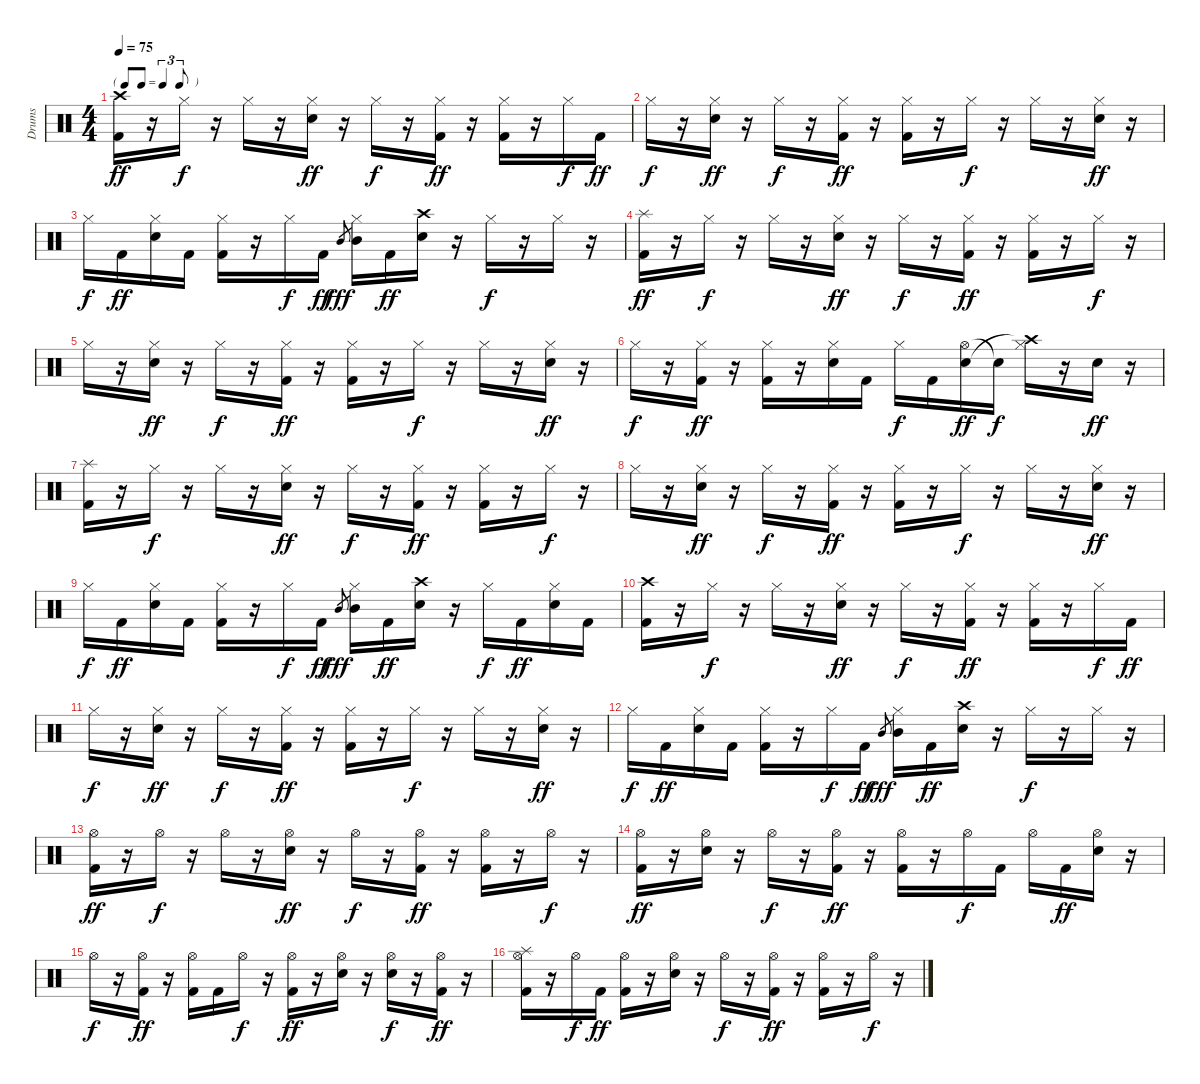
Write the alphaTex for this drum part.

\track ("Drums" "Drums") {instrument percussion}
\staff {score}
\articulation defaults
\ts (4 4)
\tf triplet8th
\tempo 75
\clef neutral
\ks c
("Crash high (hit)" "Kick (hit) 2").16{dy ff} r.16 "Hi-Hat (closed)".16{dy f} r.16 "Hi-Hat (closed)".16 r.16 ("Hi-Hat (closed)" "Electric Snare (hit)").16{dy ff} r.16 "Hi-Hat (closed)".16{dy f} r.16 ("Hi-Hat (closed)" "Kick (hit) 2").16{dy ff} r.16 ("Hi-Hat (closed)" "Kick (hit) 2").16 r.16 "Hi-Hat (closed)".16{dy f} "Kick (hit) 2".16{dy ff} |
"Hi-Hat (closed)".16{dy f} r.16 ("Hi-Hat (closed)" "Electric Snare (hit)").16{dy ff} r.16 "Hi-Hat (closed)".16{dy f} r.16 ("Hi-Hat (closed)" "Kick (hit) 2").16{dy ff} r.16 ("Hi-Hat (closed)" "Kick (hit) 2").16 r.16 "Hi-Hat (closed)".16{dy f} r.16 "Hi-Hat (closed)".16 r.16 ("Hi-Hat (closed)" "Electric Snare (hit)").16{dy ff} r.16 |
"Hi-Hat (closed)".16{dy f} "Kick (hit) 2".16{dy ff} ("Hi-Hat (closed)" "Electric Snare (hit)").16 "Kick (hit) 2".16 ("Hi-Hat (closed)" "Kick (hit) 2").16 r.16 "Hi-Hat (closed)".16{dy f} "Kick (hit) 2".16{dy ff} "Mid Tom (hit)".8{gr dy fff} ("Hi-Hat (closed)" "Mid Tom (hit)").16 "Kick (hit) 2".16{dy ff} ("Crash high (hit)" "Electric Snare (hit)").16 r.16 "Hi-Hat (closed)".16{dy f} r.16 "Hi-Hat (closed)".16 r.16 |
("Splash (hit)" "Kick (hit) 2").16{dy ff} r.16 "Hi-Hat (closed)".16{dy f} r.16 "Hi-Hat (closed)".16 r.16 ("Hi-Hat (closed)" "Electric Snare (hit)").16{dy ff} r.16 "Hi-Hat (closed)".16{dy f} r.16 ("Hi-Hat (closed)" "Kick (hit) 2").16{dy ff} r.16 ("Hi-Hat (closed)" "Kick (hit) 2").16 r.16 "Hi-Hat (closed)".16{dy f} r.16 |
"Hi-Hat (closed)".16 r.16 ("Hi-Hat (closed)" "Electric Snare (hit)").16{dy ff} r.16 "Hi-Hat (closed)".16{dy f} r.16 ("Hi-Hat (closed)" "Kick (hit) 2").16{dy ff} r.16 ("Hi-Hat (closed)" "Kick (hit) 2").16 r.16 "Hi-Hat (closed)".16{dy f} r.16 "Hi-Hat (closed)".16 r.16 ("Hi-Hat (closed)" "Electric Snare (hit)").16{dy ff} r.16 |
"Hi-Hat (closed)".16{dy f} r.16 ("Hi-Hat (closed)" "Kick (hit) 2").16{dy ff} r.16 ("Hi-Hat (closed)" "Kick (hit) 2").16 r.16 ("Hi-Hat (closed)" "Electric Snare (hit)").16 "Kick (hit) 2".16 "Hi-Hat (closed)".16{dy f} "Kick (hit) 2".16 ("Hi-Hat (open)" "Electric Snare (hit)").16{dy ff} "Snare (hit)"{t}.16{dy f} ("Hi-Hat (closed)" "Crash high (hit)"{t}).16 r.16 "Electric Snare (hit)".16{dy ff} r.16 |
("Splash (hit)" "Kick (hit) 2").16 r.16 "Hi-Hat (closed)".16{dy f} r.16 "Hi-Hat (closed)".16 r.16 ("Hi-Hat (closed)" "Electric Snare (hit)").16{dy ff} r.16 "Hi-Hat (closed)".16{dy f} r.16 ("Hi-Hat (closed)" "Kick (hit) 2").16{dy ff} r.16 ("Hi-Hat (closed)" "Kick (hit) 2").16 r.16 "Hi-Hat (closed)".16{dy f} r.16 |
"Hi-Hat (closed)".16 r.16 ("Hi-Hat (closed)" "Electric Snare (hit)").16{dy ff} r.16 "Hi-Hat (closed)".16{dy f} r.16 ("Hi-Hat (closed)" "Kick (hit) 2").16{dy ff} r.16 ("Hi-Hat (closed)" "Kick (hit) 2").16 r.16 "Hi-Hat (closed)".16{dy f} r.16 "Hi-Hat (closed)".16 r.16 ("Hi-Hat (closed)" "Electric Snare (hit)").16{dy ff} r.16 |
"Hi-Hat (closed)".16{dy f} "Kick (hit) 2".16{dy ff} ("Hi-Hat (closed)" "Electric Snare (hit)").16 "Kick (hit) 2".16 ("Hi-Hat (closed)" "Kick (hit) 2").16 r.16 "Hi-Hat (closed)".16{dy f} "Kick (hit) 2".16{dy ff} "Mid Tom (hit)".8{gr dy fff} ("Hi-Hat (closed)" "Mid Tom (hit)").16 "Kick (hit) 2".16{dy ff} ("Crash high (hit)" "Electric Snare (hit)").16 r.16 "Hi-Hat (closed)".16{dy f} "Kick (hit) 2".16{dy ff} ("Hi-Hat (closed)" "Electric Snare (hit)").16 "Kick (hit) 2".16 |
("Crash high (hit)" "Kick (hit) 2").16 r.16 "Hi-Hat (closed)".16{dy f} r.16 "Hi-Hat (closed)".16 r.16 ("Hi-Hat (closed)" "Electric Snare (hit)").16{dy ff} r.16 "Hi-Hat (closed)".16{dy f} r.16 ("Hi-Hat (closed)" "Kick (hit) 2").16{dy ff} r.16 ("Hi-Hat (closed)" "Kick (hit) 2").16 r.16 "Hi-Hat (closed)".16{dy f} "Kick (hit) 2".16{dy ff} |
"Hi-Hat (closed)".16{dy f} r.16 ("Hi-Hat (closed)" "Electric Snare (hit)").16{dy ff} r.16 "Hi-Hat (closed)".16{dy f} r.16 ("Hi-Hat (closed)" "Kick (hit) 2").16{dy ff} r.16 ("Hi-Hat (closed)" "Kick (hit) 2").16 r.16 "Hi-Hat (closed)".16{dy f} r.16 "Hi-Hat (closed)".16 r.16 ("Hi-Hat (closed)" "Electric Snare (hit)").16{dy ff} r.16 |
"Hi-Hat (closed)".16{dy f} "Kick (hit) 2".16{dy ff} ("Hi-Hat (closed)" "Electric Snare (hit)").16 "Kick (hit) 2".16 ("Hi-Hat (closed)" "Kick (hit) 2").16 r.16 "Hi-Hat (closed)".16{dy f} "Kick (hit) 2".16{dy ff} "Mid Tom (hit)".8{gr dy fff} ("Hi-Hat (closed)" "Mid Tom (hit)").16 "Kick (hit) 2".16{dy ff} ("Crash high (hit)" "Electric Snare (hit)").16 r.16 "Hi-Hat (closed)".16{dy f} r.16 "Hi-Hat (closed)".16 r.16 |
("Hi-Hat (open)" "Kick (hit) 2").16{dy ff} r.16 "Hi-Hat (open)".16{dy f} r.16 "Hi-Hat (open)".16 r.16 ("Hi-Hat (open)" "Electric Snare (hit)").16{dy ff} r.16 "Hi-Hat (open)".16{dy f} r.16 ("Hi-Hat (open)" "Kick (hit) 2").16{dy ff} r.16 ("Hi-Hat (open)" "Kick (hit) 2").16 r.16 "Hi-Hat (open)".16{dy f} r.16 |
("Hi-Hat (open)" "Kick (hit) 2").16{dy ff} r.16 ("Hi-Hat (open)" "Electric Snare (hit)").16 r.16 "Hi-Hat (open)".16{dy f} r.16 ("Hi-Hat (open)" "Kick (hit) 2").16{dy ff} r.16 ("Hi-Hat (open)" "Kick (hit) 2").16 r.16 "Hi-Hat (open)".16{dy f} "Kick (hit) 2".16 "Hi-Hat (open)".16 "Kick (hit) 2".16{dy ff} ("Hi-Hat (open)" "Electric Snare (hit)").16 r.16 |
"Hi-Hat (open)".16{dy f} r.16 ("Hi-Hat (open)" "Kick (hit) 2").16{dy ff} r.16 ("Hi-Hat (open)" "Kick (hit) 2").16 "Kick (hit) 2".16 "Hi-Hat (open)".16{dy f} r.16 ("Hi-Hat (open)" "Kick (hit) 2").16{dy ff} r.16 ("Hi-Hat (open)" "Electric Snare (hit)").16 r.16 ("Hi-Hat (open)" "Electric Snare (hit)").16{dy f} r.16 ("Hi-Hat (open)" "Kick (hit) 2").16{dy ff} r.16 |
("Hi-Hat (open)" "Splash (hit)" "Kick (hit) 2").16 r.16 "Hi-Hat (open)".16{dy f} "Kick (hit) 2".16{dy ff} ("Hi-Hat (open)" "Kick (hit) 2").16 r.16 ("Hi-Hat (open)" "Electric Snare (hit)").16 r.16 "Hi-Hat (open)".16{dy f} r.16 ("Hi-Hat (open)" "Kick (hit) 2").16{dy ff} r.16 ("Hi-Hat (open)" "Kick (hit) 2").16 r.16 "Hi-Hat (open)".16{dy f} r.16
